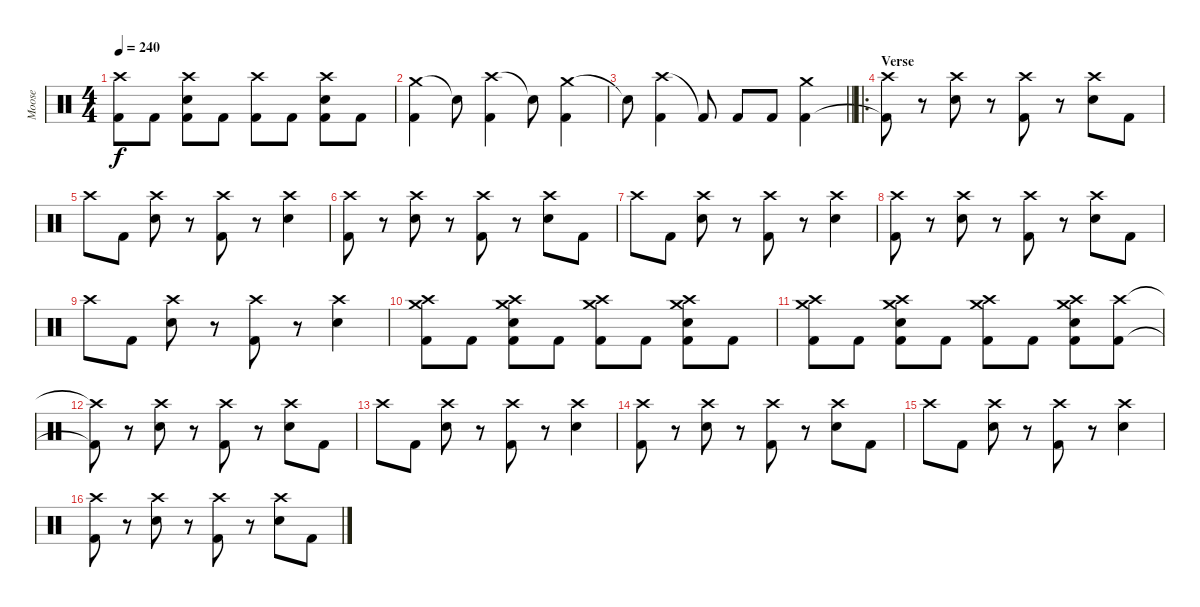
\track ("Moose" "Moose") {instrument percussion}
\staff {score}
\articulation defaults
\ts (4 4)
\tempo 240
\clef neutral
\ks c
("Crash high (hit)" "Kick (hit) 2").8{dy f} "Kick (hit) 2".8 ("Crash high (hit)" "Snare (hit) 2" "Kick (hit) 2").8 "Kick (hit) 2".8 ("Crash high (hit)" "Kick (hit) 2").8 "Kick (hit) 2".8 ("Crash high (hit)" "Snare (hit) 2" "Kick (hit) 2").8 "Kick (hit) 2".8 |
("Crash medium (hit)" "Kick (hit) 2").4 "Snare (hit)"{t}.8 ("Crash high (hit)" "Kick (hit) 2").4 "Snare (hit)"{t}.8 ("Crash medium (hit)" "Kick (hit) 2").4 |
\barLineRight lightlight "Snare (hit)"{t}.8
("Crash high (hit)" "Kick (hit) 2").4 "Kick (hit) 2"{t}.8 "Kick (hit) 2".8 "Kick (hit) 2".8 ("Crash medium (hit)" "Kick (hit) 2").4 |
\ro
\section ("" "Verse")
("Crash high (hit)" "Kick (hit) 2"{t}).8 r.8 ("Crash high (hit)" "Snare (hit) 2").8 r.8 ("Crash high (hit)" "Kick (hit) 2").8 r.8 ("Crash high (hit)" "Snare (hit) 2").8 "Kick (hit) 2".8 |
"Crash high (hit)".8 "Kick (hit) 2".8 ("Crash high (hit)" "Snare (hit) 2").8 r.8 ("Crash high (hit)" "Kick (hit) 2").8 r.8 ("Crash high (hit)" "Snare (hit) 2").4 |
("Crash high (hit)" "Kick (hit) 2").8 r.8 ("Crash high (hit)" "Snare (hit) 2").8 r.8 ("Crash high (hit)" "Kick (hit) 2").8 r.8 ("Crash high (hit)" "Snare (hit) 2").8 "Kick (hit) 2".8 |
"Crash high (hit)".8 "Kick (hit) 2".8 ("Crash high (hit)" "Snare (hit) 2").8 r.8 ("Crash high (hit)" "Kick (hit) 2").8 r.8 ("Crash high (hit)" "Snare (hit) 2").4 |
("Crash high (hit)" "Kick (hit) 2").8 r.8 ("Crash high (hit)" "Snare (hit) 2").8 r.8 ("Crash high (hit)" "Kick (hit) 2").8 r.8 ("Crash high (hit)" "Snare (hit) 2").8 "Kick (hit) 2".8 |
"Crash high (hit)".8 "Kick (hit) 2".8 ("Crash high (hit)" "Snare (hit) 2").8 r.8 ("Crash high (hit)" "Kick (hit) 2").8 r.8 ("Crash high (hit)" "Snare (hit) 2").4 |
("Crash medium (hit)" "Crash high (hit)" "Kick (hit) 2").8 "Kick (hit) 2".8 ("Crash medium (hit)" "Crash high (hit)" "Snare (hit) 2" "Kick (hit) 2").8 "Kick (hit) 2".8 ("Crash medium (hit)" "Crash high (hit)" "Kick (hit) 2").8 "Kick (hit) 2".8 ("Crash medium (hit)" "Crash high (hit)" "Snare (hit) 2" "Kick (hit) 2").8 "Kick (hit) 2".8 |
("Crash medium (hit)" "Crash high (hit)" "Kick (hit) 2").8 "Kick (hit) 2".8 ("Crash medium (hit)" "Crash high (hit)" "Snare (hit) 2" "Kick (hit) 2").8 "Kick (hit) 2".8 ("Crash medium (hit)" "Crash high (hit)" "Kick (hit) 2").8 "Kick (hit) 2".8 ("Crash medium (hit)" "Crash high (hit)" "Snare (hit) 2" "Kick (hit) 2").8 ("Crash high (hit)" "Kick (hit) 2").8 |
("Crash high (hit)"{t} "Kick (hit) 2"{t}).8 r.8 ("Crash high (hit)" "Snare (hit) 2").8 r.8 ("Crash high (hit)" "Kick (hit) 2").8 r.8 ("Crash high (hit)" "Snare (hit) 2").8 "Kick (hit) 2".8 |
"Crash high (hit)".8 "Kick (hit) 2".8 ("Crash high (hit)" "Snare (hit) 2").8 r.8 ("Crash high (hit)" "Kick (hit) 2").8 r.8 ("Crash high (hit)" "Snare (hit) 2").4 |
("Crash high (hit)" "Kick (hit) 2").8 r.8 ("Crash high (hit)" "Snare (hit) 2").8 r.8 ("Crash high (hit)" "Kick (hit) 2").8 r.8 ("Crash high (hit)" "Snare (hit) 2").8 "Kick (hit) 2".8 |
"Crash high (hit)".8 "Kick (hit) 2".8 ("Crash high (hit)" "Snare (hit) 2").8 r.8 ("Crash high (hit)" "Kick (hit) 2").8 r.8 ("Crash high (hit)" "Snare (hit) 2").4 |
("Crash high (hit)" "Kick (hit) 2").8 r.8 ("Crash high (hit)" "Snare (hit) 2").8 r.8 ("Crash high (hit)" "Kick (hit) 2").8 r.8 ("Crash high (hit)" "Snare (hit) 2").8 "Kick (hit) 2".8
